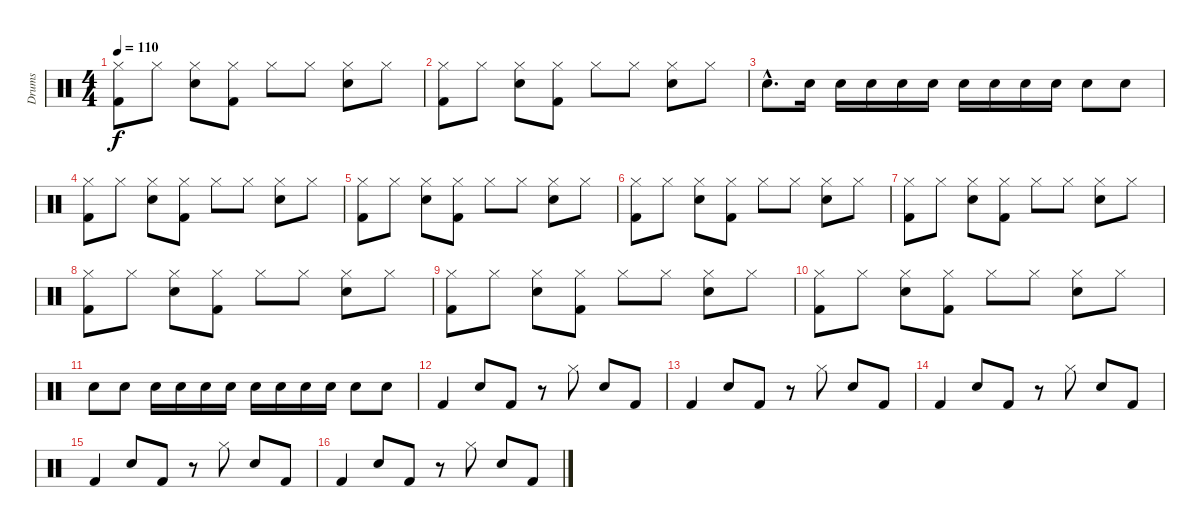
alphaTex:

\track ("Drums" "Drums") {instrument percussion}
\staff {score}
\articulation defaults
\ts (4 4)
\tempo 110
\clef neutral
\ks c
("Hi-Hat (closed)" "Kick (hit) 2").8{dy f} "Hi-Hat (closed)".8 ("Hi-Hat (closed)" "Snare (hit) 2").8 ("Hi-Hat (closed)" "Kick (hit) 2").8 "Hi-Hat (closed)".8 "Hi-Hat (closed)".8 ("Hi-Hat (closed)" "Snare (hit) 2").8 "Hi-Hat (closed)".8 |
("Hi-Hat (closed)" "Kick (hit) 2").8 "Hi-Hat (closed)".8 ("Hi-Hat (closed)" "Snare (hit) 2").8 ("Hi-Hat (closed)" "Kick (hit) 2").8 "Hi-Hat (closed)".8 "Hi-Hat (closed)".8 ("Hi-Hat (closed)" "Snare (hit) 2").8 "Hi-Hat (closed)".8 |
"Snare (hit) 2"{hac}.8{d} "Snare (hit) 2".16 "Snare (hit) 2".16 "Snare (hit) 2".16 "Snare (hit) 2".16 "Snare (hit) 2".16 "Snare (hit) 2".16 "Snare (hit) 2".16 "Snare (hit) 2".16 "Snare (hit) 2".16 "Snare (hit) 2".8 "Snare (hit) 2".8 |
("Hi-Hat (closed)" "Kick (hit) 2").8 "Hi-Hat (closed)".8 ("Hi-Hat (closed)" "Snare (hit) 2").8 ("Hi-Hat (closed)" "Kick (hit) 2").8 "Hi-Hat (closed)".8 "Hi-Hat (closed)".8 ("Hi-Hat (closed)" "Snare (hit) 2").8 "Hi-Hat (closed)".8 |
("Hi-Hat (closed)" "Kick (hit) 2").8 "Hi-Hat (closed)".8 ("Hi-Hat (closed)" "Snare (hit) 2").8 ("Hi-Hat (closed)" "Kick (hit) 2").8 "Hi-Hat (closed)".8 "Hi-Hat (closed)".8 ("Hi-Hat (closed)" "Snare (hit) 2").8 "Hi-Hat (closed)".8 |
("Hi-Hat (closed)" "Kick (hit) 2").8 "Hi-Hat (closed)".8 ("Hi-Hat (closed)" "Snare (hit) 2").8 ("Hi-Hat (closed)" "Kick (hit) 2").8 "Hi-Hat (closed)".8 "Hi-Hat (closed)".8 ("Hi-Hat (closed)" "Snare (hit) 2").8 "Hi-Hat (closed)".8 |
("Hi-Hat (closed)" "Kick (hit) 2").8 "Hi-Hat (closed)".8 ("Hi-Hat (closed)" "Snare (hit) 2").8 ("Hi-Hat (closed)" "Kick (hit) 2").8 "Hi-Hat (closed)".8 "Hi-Hat (closed)".8 ("Hi-Hat (closed)" "Snare (hit) 2").8 "Hi-Hat (closed)".8 |
("Hi-Hat (closed)" "Kick (hit) 2").8 "Hi-Hat (closed)".8 ("Hi-Hat (closed)" "Snare (hit) 2").8 ("Hi-Hat (closed)" "Kick (hit) 2").8 "Hi-Hat (closed)".8 "Hi-Hat (closed)".8 ("Hi-Hat (closed)" "Snare (hit) 2").8 "Hi-Hat (closed)".8 |
("Hi-Hat (closed)" "Kick (hit) 2").8 "Hi-Hat (closed)".8 ("Hi-Hat (closed)" "Snare (hit) 2").8 ("Hi-Hat (closed)" "Kick (hit) 2").8 "Hi-Hat (closed)".8 "Hi-Hat (closed)".8 ("Hi-Hat (closed)" "Snare (hit) 2").8 "Hi-Hat (closed)".8 |
("Hi-Hat (closed)" "Kick (hit) 2").8 "Hi-Hat (closed)".8 ("Hi-Hat (closed)" "Snare (hit) 2").8 ("Hi-Hat (closed)" "Kick (hit) 2").8 "Hi-Hat (closed)".8 "Hi-Hat (closed)".8 ("Hi-Hat (closed)" "Snare (hit) 2").8 "Hi-Hat (closed)".8 |
"Snare (hit) 2".8 "Snare (hit) 2".8 "Snare (hit) 2".16 "Snare (hit) 2".16 "Snare (hit) 2".16 "Snare (hit) 2".16 "Snare (hit) 2".16 "Snare (hit) 2".16 "Snare (hit) 2".16 "Snare (hit) 2".16 "Snare (hit) 2".8 "Snare (hit) 2".8 |
"Kick (hit) 2".4 "Snare (hit) 2".8 "Kick (hit) 2".8 r.8 "Hi-Hat (closed)".8 "Snare (hit) 2".8 "Kick (hit) 2".8 |
"Kick (hit) 2".4 "Snare (hit) 2".8 "Kick (hit) 2".8 r.8 "Hi-Hat (closed)".8 "Snare (hit) 2".8 "Kick (hit) 2".8 |
"Kick (hit) 2".4 "Snare (hit) 2".8 "Kick (hit) 2".8 r.8 "Hi-Hat (closed)".8 "Snare (hit) 2".8 "Kick (hit) 2".8 |
"Kick (hit) 2".4 "Snare (hit) 2".8 "Kick (hit) 2".8 r.8 "Hi-Hat (closed)".8 "Snare (hit) 2".8 "Kick (hit) 2".8 |
"Kick (hit) 2".4 "Snare (hit) 2".8 "Kick (hit) 2".8 r.8 "Hi-Hat (closed)".8 "Snare (hit) 2".8 "Kick (hit) 2".8
